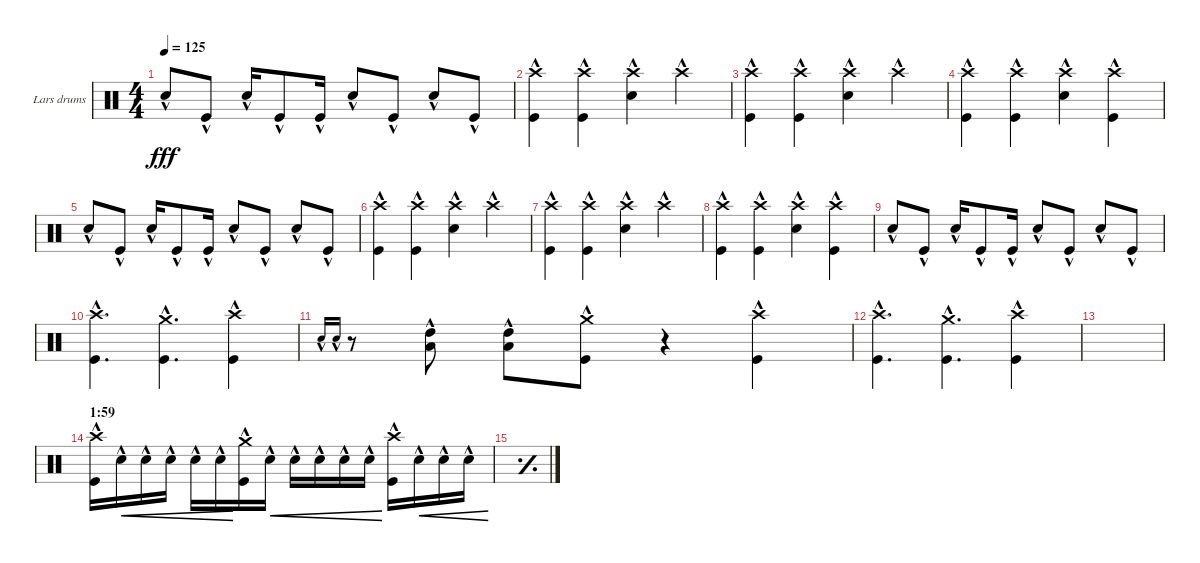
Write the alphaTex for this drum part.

\defaultSystemsLayout 4
\bracketExtendMode groupsimilarinstruments
\firstSystemTrackNameOrientation horizontal
\otherSystemsTrackNameOrientation horizontal
\track ("Lars drums" "Lars drums") {instrument percussion}
\staff {score}
\articulation defaults
\ts (4 4)
\tempo 125
\clef neutral
\ks c "Snare (hit) 2"{hac}.8{dy fff} "Kick (hit)"{hac}.8 "Snare (hit) 2"{hac}.16 "Kick (hit)"{hac}.8 "Kick (hit)"{hac}.16 "Snare (hit) 2"{hac}.8 "Kick (hit)"{hac}.8 "Snare (hit) 2"{hac}.8 "Kick (hit)"{hac}.8
|
("Crash high (hit)"{hac} "Kick (hit)"{hac}).4 ("Crash high (hit)"{hac} "Kick (hit)"{hac}).4 ("Crash high (hit)"{hac} "Snare (hit) 2"{hac}).4 "Crash high (hit)"{hac}.4 |
("Crash high (hit)"{hac} "Kick (hit)"{hac}).4 ("Crash high (hit)"{hac} "Kick (hit)"{hac}).4 ("Crash high (hit)"{hac} "Snare (hit) 2"{hac}).4 "Crash high (hit)"{hac}.4 |
("Crash high (hit)"{hac} "Kick (hit)"{hac}).4 ("Crash high (hit)"{hac} "Kick (hit)"{hac}).4 ("Crash high (hit)"{hac} "Snare (hit) 2"{hac}).4 ("Crash high (hit)"{hac} "Kick (hit)"{hac}).4 |
"Snare (hit) 2"{hac}.8 "Kick (hit)"{hac}.8 "Snare (hit) 2"{hac}.16 "Kick (hit)"{hac}.8 "Kick (hit)"{hac}.16 "Snare (hit) 2"{hac}.8 "Kick (hit)"{hac}.8 "Snare (hit) 2"{hac}.8 "Kick (hit)"{hac}.8 |
("Crash high (hit)"{hac} "Kick (hit)"{hac}).4 ("Crash high (hit)"{hac} "Kick (hit)"{hac}).4 ("Crash high (hit)"{hac} "Snare (hit) 2"{hac}).4 "Crash high (hit)"{hac}.4 |
("Crash high (hit)"{hac} "Kick (hit)"{hac}).4 ("Crash high (hit)"{hac} "Kick (hit)"{hac}).4 ("Crash high (hit)"{hac} "Snare (hit) 2"{hac}).4 "Crash high (hit)"{hac}.4 |
("Crash high (hit)"{hac} "Kick (hit)"{hac}).4 ("Crash high (hit)"{hac} "Kick (hit)"{hac}).4 ("Crash high (hit)"{hac} "Snare (hit) 2"{hac}).4 ("Crash high (hit)"{hac} "Kick (hit)"{hac}).4 |
"Snare (hit) 2"{hac}.8 "Kick (hit)"{hac}.8 "Snare (hit) 2"{hac}.16 "Kick (hit)"{hac}.8 "Kick (hit)"{hac}.16 "Snare (hit) 2"{hac}.8 "Kick (hit)"{hac}.8 "Snare (hit) 2"{hac}.8 "Kick (hit)"{hac}.8 |
("Crash high (hit)"{hac} "Kick (hit)"{hac}).4{d} ("Crash medium (hit)"{hac} "Kick (hit)"{hac}).4{d} ("Crash high (hit)"{hac} "Kick (hit)"{hac}).4 |
"Snare (hit) 2"{hac}.16{gr onbeat} "Snare (hit) 2"{hac}.16{gr onbeat} r.8 ("Low Tom (hit)"{hac} "High Tom (hit)"{hac}).8 ("Low Tom (hit)"{hac} "High Tom (hit)"{hac}).8 ("Crash medium (hit)"{hac} "Kick (hit)"{hac}).8 r.4 ("Crash high (hit)"{hac} "Kick (hit)"{hac}).4 |
("Crash high (hit)"{hac} "Kick (hit)"{hac}).4{d} ("Crash medium (hit)"{hac} "Kick (hit)"{hac}).4{d} ("Crash high (hit)"{hac} "Kick (hit)"{hac}).4 |
|
\section ("" "1:59")
("Crash high (hit)"{hac} "Kick (hit)"{hac}).16 "Snare (hit) 2"{hac}.16{cre} "Snare (hit) 2"{hac}.16{cre} "Snare (hit) 2"{hac}.16{cre} "Snare (hit) 2"{hac}.16{cre} "Snare (hit) 2"{hac}.16{cre} ("Crash medium (hit)"{hac} "Kick (hit)"{hac}).16 "Snare (hit) 2"{hac}.16{cre} "Snare (hit) 2"{hac}.16{cre} "Snare (hit) 2"{hac}.16{cre} "Snare (hit) 2"{hac}.16{cre} "Snare (hit) 2"{hac}.16{cre} ("Crash high (hit)"{hac} "Kick (hit)"{hac}).16 "Snare (hit) 2"{hac}.16{cre} "Snare (hit) 2"{hac}.16{cre} "Snare (hit) 2"{hac}.16{cre} |
\simile simple
